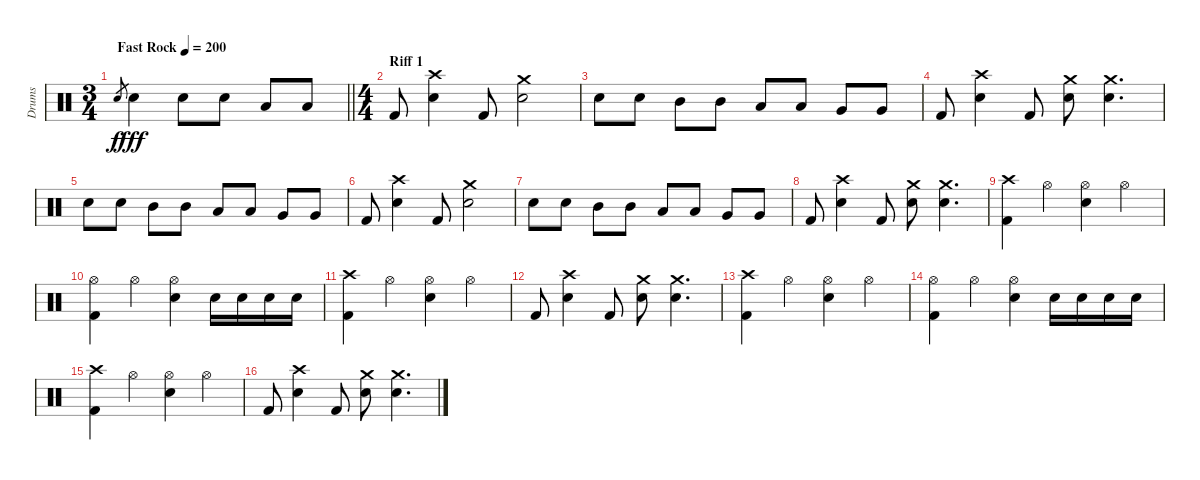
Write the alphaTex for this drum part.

\track ("Drums" "Drums") {instrument percussion}
\staff {score}
\articulation defaults
\ts (3 4)
\tempo (200 "Fast Rock")
\clef neutral
\barLineRight lightlight
\ks c "Electric Snare (hit)".8{gr dy f} "Electric Snare (hit)".4{dy fff} "Electric Snare (hit)".8 "Electric Snare (hit)".8 "Low Tom (hit)".8 "Low Tom (hit)".8
|
\ts (4 4)
\section ("" "Riff 1")
"Kick (hit) 2".8 ("Crash high (hit)" "Electric Snare (hit)").4 "Kick (hit) 2".8 ("Crash medium (hit)" "Electric Snare (hit)").2 |
"Electric Snare (hit)".8 "Electric Snare (hit)".8 "Mid Tom (hit)".8 "Mid Tom (hit)".8 "Low Tom (hit)".8 "Low Tom (hit)".8 "Very Low Tom (hit)".8 "Very Low Tom (hit)".8 |
"Kick (hit) 2".8 ("Crash high (hit)" "Electric Snare (hit)").4 "Kick (hit) 2".8 ("Crash medium (hit)" "Electric Snare (hit)").8 ("Crash medium (hit)" "Electric Snare (hit)").4{d} |
"Electric Snare (hit)".8 "Electric Snare (hit)".8 "Mid Tom (hit)".8 "Mid Tom (hit)".8 "Low Tom (hit)".8 "Low Tom (hit)".8 "Very Low Tom (hit)".8 "Very Low Tom (hit)".8 |
"Kick (hit) 2".8 ("Crash high (hit)" "Electric Snare (hit)").4 "Kick (hit) 2".8 ("Crash medium (hit)" "Electric Snare (hit)").2 |
"Electric Snare (hit)".8 "Electric Snare (hit)".8 "Mid Tom (hit)".8 "Mid Tom (hit)".8 "Low Tom (hit)".8 "Low Tom (hit)".8 "Very Low Tom (hit)".8 "Very Low Tom (hit)".8 |
"Kick (hit) 2".8 ("Crash high (hit)" "Electric Snare (hit)").4 "Kick (hit) 2".8 ("Crash medium (hit)" "Electric Snare (hit)").8 ("Crash medium (hit)" "Electric Snare (hit)").4{d} |
("Crash high (hit)" "Kick (hit) 2").4 "Hi-Hat (open)".4 ("Hi-Hat (open)" "Electric Snare (hit)").4 "Hi-Hat (open)".4 |
("Hi-Hat (open)" "Kick (hit) 2").4 "Hi-Hat (open)".4 ("Hi-Hat (open)" "Electric Snare (hit)").4 "Electric Snare (hit)".16 "Electric Snare (hit)".16 "Electric Snare (hit)".16 "Electric Snare (hit)".16 |
("Crash high (hit)" "Kick (hit) 2").4 "Hi-Hat (open)".4 ("Hi-Hat (open)" "Electric Snare (hit)").4 "Hi-Hat (open)".4 |
"Kick (hit) 2".8 ("Crash high (hit)" "Electric Snare (hit)").4 "Kick (hit) 2".8 ("Crash medium (hit)" "Electric Snare (hit)").8 ("Crash medium (hit)" "Electric Snare (hit)").4{d} |
("Crash high (hit)" "Kick (hit) 2").4 "Hi-Hat (open)".4 ("Hi-Hat (open)" "Electric Snare (hit)").4 "Hi-Hat (open)".4 |
("Hi-Hat (open)" "Kick (hit) 2").4 "Hi-Hat (open)".4 ("Hi-Hat (open)" "Electric Snare (hit)").4 "Electric Snare (hit)".16 "Electric Snare (hit)".16 "Electric Snare (hit)".16 "Electric Snare (hit)".16 |
("Crash high (hit)" "Kick (hit) 2").4 "Hi-Hat (open)".4 ("Hi-Hat (open)" "Electric Snare (hit)").4 "Hi-Hat (open)".4 |
"Kick (hit) 2".8 ("Crash high (hit)" "Electric Snare (hit)").4 "Kick (hit) 2".8 ("Crash medium (hit)" "Electric Snare (hit)").8 ("Crash medium (hit)" "Electric Snare (hit)").4{d}
